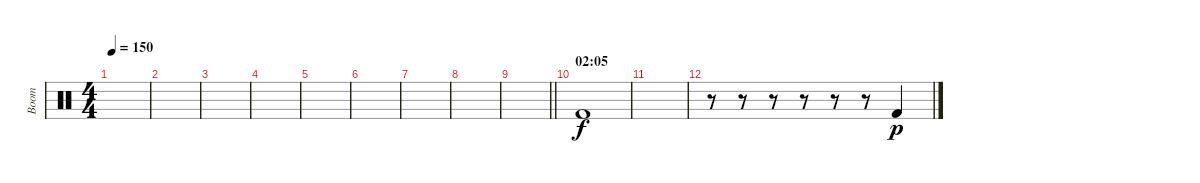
\track ("Boom" "Boom") {instrument percussion}
\staff {score}
\articulation defaults
\ts (4 4)
\tempo 150
\clef neutral
\ks c
|
|
|
|
|
|
|
|
\barLineRight lightlight
|
\section ("" "02:05")
"Kick (hit) 2".1 |
|
r.8 r.8 r.8 r.8 r.8 r.8 "Kick (hit) 2".4{dy p}
